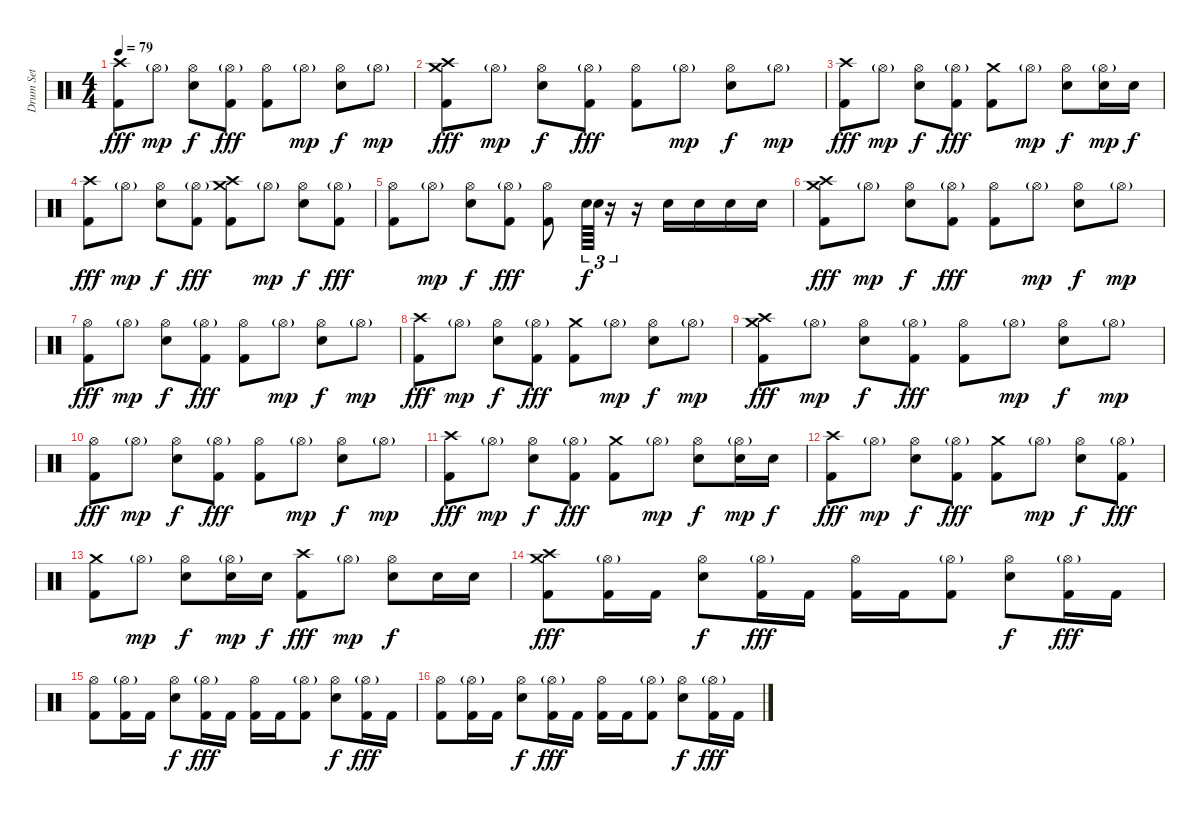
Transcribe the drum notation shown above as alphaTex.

\track ("Drum Set" "Drum Set") {instrument percussion}
\staff {score}
\articulation defaults
\ts (4 4)
\tempo 79
\clef neutral
\ks c
("Crash high (hit)" "Kick (hit) 2").8{dy fff} "Hi-Hat (open)"{g}.8{dy mp} ("Hi-Hat (open)" "Snare (hit) 2").8{dy f} ("Hi-Hat (open)"{g} "Kick (hit) 2").8{dy fff} ("Hi-Hat (open)" "Kick (hit) 2").8 "Hi-Hat (open)"{g}.8{dy mp} ("Hi-Hat (open)" "Snare (hit) 2").8{dy f} "Hi-Hat (open)"{g}.8{dy mp} |
("Crash high (hit)" "Crash medium (hit)" "Kick (hit) 2").8{dy fff} "Hi-Hat (open)"{g}.8{dy mp} ("Hi-Hat (open)" "Snare (hit) 2").8{dy f} ("Hi-Hat (open)"{g} "Kick (hit) 2").8{dy fff} ("Hi-Hat (open)" "Kick (hit) 2").8 "Hi-Hat (open)"{g}.8{dy mp} ("Hi-Hat (open)" "Snare (hit) 2").8{dy f} "Hi-Hat (open)"{g}.8{dy mp} |
("Crash high (hit)" "Kick (hit) 2").8{dy fff} "Hi-Hat (open)"{g}.8{dy mp} ("Hi-Hat (open)" "Snare (hit) 2").8{dy f} ("Hi-Hat (open)"{g} "Kick (hit) 2").8{dy fff} ("Crash medium (hit)" "Kick (hit) 2").8 "Hi-Hat (open)"{g}.8{dy mp} ("Hi-Hat (open)" "Snare (hit) 2").8{dy f} ("Hi-Hat (open)"{g} "Snare (hit) 2").16{dy mp} "Snare (hit) 2".16{dy f} |
("Crash high (hit)" "Kick (hit) 2").8{dy fff} "Hi-Hat (open)"{g}.8{dy mp} ("Hi-Hat (open)" "Snare (hit) 2").8{dy f} ("Hi-Hat (open)"{g} "Kick (hit) 2").8{dy fff} ("Crash medium (hit)" "Crash high (hit)" "Kick (hit) 2").8 "Hi-Hat (open)"{g}.8{dy mp} ("Hi-Hat (open)" "Snare (hit) 2").8{dy f} ("Hi-Hat (open)"{g} "Kick (hit) 2").8{dy fff} |
("Hi-Hat (open)" "Kick (hit) 2").8 "Hi-Hat (open)"{g}.8{dy mp} ("Hi-Hat (open)" "Snare (hit) 2").8{dy f} ("Hi-Hat (open)"{g} "Kick (hit) 2").8{dy fff} ("Hi-Hat (open)" "Kick (hit) 2").8 "Snare (hit) 2".64{tu (3 2) dy f} "Snare (hit) 2".64{tu (3 2)} r.16{tu (3 2)} r.16 "Snare (hit) 2".16 "Snare (hit) 2".16 "Snare (hit) 2".16 "Snare (hit) 2".16 |
("Crash high (hit)" "Crash medium (hit)" "Kick (hit) 2").8{dy fff} "Hi-Hat (open)"{g}.8{dy mp} ("Hi-Hat (open)" "Snare (hit) 2").8{dy f} ("Hi-Hat (open)"{g} "Kick (hit) 2").8{dy fff} ("Hi-Hat (open)" "Kick (hit) 2").8 "Hi-Hat (open)"{g}.8{dy mp} ("Hi-Hat (open)" "Snare (hit) 2").8{dy f} "Hi-Hat (open)"{g}.8{dy mp} |
("Hi-Hat (open)" "Kick (hit) 2").8{dy fff} "Hi-Hat (open)"{g}.8{dy mp} ("Hi-Hat (open)" "Snare (hit) 2").8{dy f} ("Hi-Hat (open)"{g} "Kick (hit) 2").8{dy fff} ("Hi-Hat (open)" "Kick (hit) 2").8 "Hi-Hat (open)"{g}.8{dy mp} ("Hi-Hat (open)" "Snare (hit) 2").8{dy f} "Hi-Hat (open)"{g}.8{dy mp} |
("Crash high (hit)" "Kick (hit) 2").8{dy fff} "Hi-Hat (open)"{g}.8{dy mp} ("Hi-Hat (open)" "Snare (hit) 2").8{dy f} ("Hi-Hat (open)"{g} "Kick (hit) 2").8{dy fff} ("Crash medium (hit)" "Kick (hit) 2").8 "Hi-Hat (open)"{g}.8{dy mp} ("Hi-Hat (open)" "Snare (hit) 2").8{dy f} "Hi-Hat (open)"{g}.8{dy mp} |
("Crash high (hit)" "Crash medium (hit)" "Kick (hit) 2").8{dy fff} "Hi-Hat (open)"{g}.8{dy mp} ("Hi-Hat (open)" "Snare (hit) 2").8{dy f} ("Hi-Hat (open)"{g} "Kick (hit) 2").8{dy fff} ("Hi-Hat (open)" "Kick (hit) 2").8 "Hi-Hat (open)"{g}.8{dy mp} ("Hi-Hat (open)" "Snare (hit) 2").8{dy f} "Hi-Hat (open)"{g}.8{dy mp} |
("Hi-Hat (open)" "Kick (hit) 2").8{dy fff} "Hi-Hat (open)"{g}.8{dy mp} ("Hi-Hat (open)" "Snare (hit) 2").8{dy f} ("Hi-Hat (open)"{g} "Kick (hit) 2").8{dy fff} ("Hi-Hat (open)" "Kick (hit) 2").8 "Hi-Hat (open)"{g}.8{dy mp} ("Hi-Hat (open)" "Snare (hit) 2").8{dy f} "Hi-Hat (open)"{g}.8{dy mp} |
("Crash high (hit)" "Kick (hit) 2").8{dy fff} "Hi-Hat (open)"{g}.8{dy mp} ("Hi-Hat (open)" "Snare (hit) 2").8{dy f} ("Hi-Hat (open)"{g} "Kick (hit) 2").8{dy fff} ("Crash medium (hit)" "Kick (hit) 2").8 "Hi-Hat (open)"{g}.8{dy mp} ("Hi-Hat (open)" "Snare (hit) 2").8{dy f} ("Hi-Hat (open)"{g} "Snare (hit) 2").16{dy mp} "Snare (hit) 2".16{dy f} |
("Crash high (hit)" "Kick (hit) 2").8{dy fff} "Hi-Hat (open)"{g}.8{dy mp} ("Hi-Hat (open)" "Snare (hit) 2").8{dy f} ("Hi-Hat (open)"{g} "Kick (hit) 2").8{dy fff} ("Crash medium (hit)" "Kick (hit) 2").8 "Hi-Hat (open)"{g}.8{dy mp} ("Hi-Hat (open)" "Snare (hit) 2").8{dy f} ("Hi-Hat (open)"{g} "Kick (hit) 2").8{dy fff} |
("Crash medium (hit)" "Kick (hit) 2").8 "Hi-Hat (open)"{g}.8{dy mp} ("Hi-Hat (open)" "Snare (hit) 2").8{dy f} ("Hi-Hat (open)"{g} "Snare (hit) 2").16{dy mp} "Snare (hit) 2".16{dy f} ("Crash high (hit)" "Kick (hit) 2").8{dy fff} "Hi-Hat (open)"{g}.8{dy mp} ("Hi-Hat (open)" "Snare (hit) 2").8{dy f} "Snare (hit) 2".16 "Snare (hit) 2".16 |
("Crash high (hit)" "Crash medium (hit)" "Kick (hit) 2").8{dy fff volume 16} ("Hi-Hat (open)"{g} "Kick (hit) 2").16 "Kick (hit) 2".16 ("Hi-Hat (open)" "Snare (hit) 2").8{dy f} ("Hi-Hat (open)"{g} "Kick (hit) 2").16{dy fff} "Kick (hit) 2".16 ("Hi-Hat (open)" "Kick (hit) 2").16 "Kick (hit) 2".16 ("Hi-Hat (open)"{g} "Kick (hit) 2").8 ("Hi-Hat (open)" "Snare (hit) 2").8{dy f} ("Hi-Hat (open)"{g} "Kick (hit) 2").16{dy fff} "Kick (hit) 2".16 |
("Hi-Hat (open)" "Kick (hit) 2").8 ("Hi-Hat (open)"{g} "Kick (hit) 2").16 "Kick (hit) 2".16 ("Hi-Hat (open)" "Snare (hit) 2").8{dy f} ("Hi-Hat (open)"{g} "Kick (hit) 2").16{dy fff} "Kick (hit) 2".16 ("Hi-Hat (open)" "Kick (hit) 2").16 "Kick (hit) 2".16 ("Hi-Hat (open)"{g} "Kick (hit) 2").8 ("Hi-Hat (open)" "Snare (hit) 2").8{dy f} ("Hi-Hat (open)"{g} "Kick (hit) 2").16{dy fff} "Kick (hit) 2".16 |
("Hi-Hat (open)" "Kick (hit) 2").8 ("Hi-Hat (open)"{g} "Kick (hit) 2").16 "Kick (hit) 2".16 ("Hi-Hat (open)" "Snare (hit) 2").8{dy f} ("Hi-Hat (open)"{g} "Kick (hit) 2").16{dy fff} "Kick (hit) 2".16 ("Hi-Hat (open)" "Kick (hit) 2").16 "Kick (hit) 2".16 ("Hi-Hat (open)"{g} "Kick (hit) 2").8 ("Hi-Hat (open)" "Snare (hit) 2").8{dy f} ("Hi-Hat (open)"{g} "Kick (hit) 2").16{dy fff} "Kick (hit) 2".16
